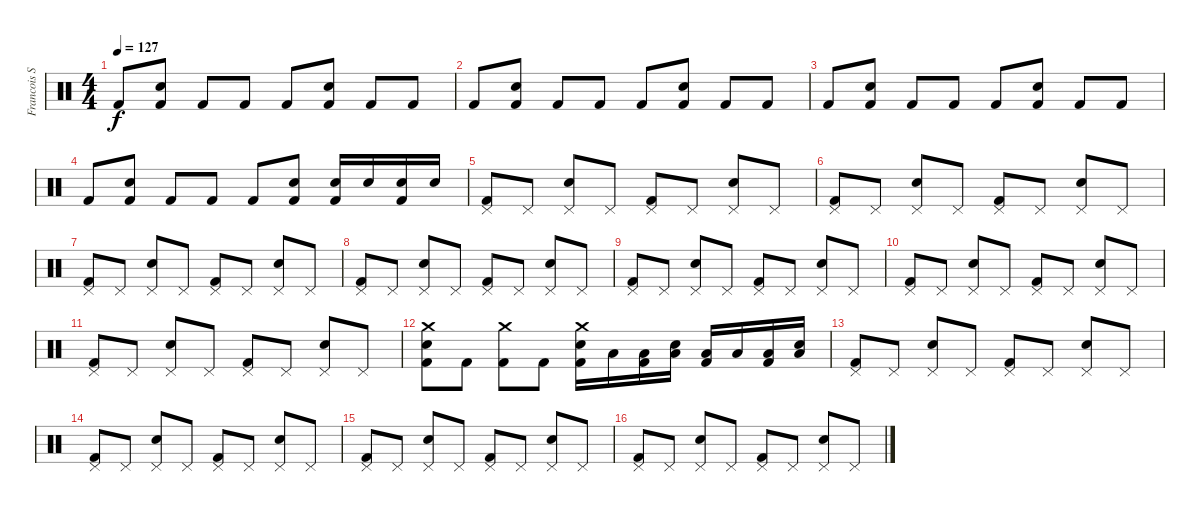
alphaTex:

\track ("Francois Soulier" "Francois S") {instrument percussion}
\staff {score}
\articulation defaults
\ts (4 4)
\tempo 127
\clef neutral
\ks c "Kick (hit) 2".8{dy f}
("Snare (hit) 2" "Kick (hit) 2").8 "Kick (hit) 2".8 "Kick (hit) 2".8 "Kick (hit) 2".8 ("Snare (hit) 2" "Kick (hit) 2").8 "Kick (hit) 2".8 "Kick (hit) 2".8 |
"Kick (hit) 2".8 ("Snare (hit) 2" "Kick (hit) 2").8 "Kick (hit) 2".8 "Kick (hit) 2".8 "Kick (hit) 2".8 ("Snare (hit) 2" "Kick (hit) 2").8 "Kick (hit) 2".8 "Kick (hit) 2".8 |
"Kick (hit) 2".8 ("Snare (hit) 2" "Kick (hit) 2").8 "Kick (hit) 2".8 "Kick (hit) 2".8 "Kick (hit) 2".8 ("Snare (hit) 2" "Kick (hit) 2").8 "Kick (hit) 2".8 "Kick (hit) 2".8 |
"Kick (hit) 2".8 ("Snare (hit) 2" "Kick (hit) 2").8 "Kick (hit) 2".8 "Kick (hit) 2".8 "Kick (hit) 2".8 ("Snare (hit) 2" "Kick (hit) 2").8 ("Snare (hit) 2" "Kick (hit) 2").16 "Snare (hit) 2".16 ("Snare (hit) 2" "Kick (hit) 2").16 "Snare (hit) 2".16 |
("Kick (hit) 2" "Pedal Hi-Hat (hit)").8 "Pedal Hi-Hat (hit)".8 ("Snare (hit) 2" "Pedal Hi-Hat (hit)").8 "Pedal Hi-Hat (hit)".8 ("Kick (hit) 2" "Pedal Hi-Hat (hit)").8 "Pedal Hi-Hat (hit)".8 ("Snare (hit) 2" "Pedal Hi-Hat (hit)").8 "Pedal Hi-Hat (hit)".8 |
("Kick (hit) 2" "Pedal Hi-Hat (hit)").8 "Pedal Hi-Hat (hit)".8 ("Snare (hit) 2" "Pedal Hi-Hat (hit)").8 "Pedal Hi-Hat (hit)".8 ("Kick (hit) 2" "Pedal Hi-Hat (hit)").8 "Pedal Hi-Hat (hit)".8 ("Snare (hit) 2" "Pedal Hi-Hat (hit)").8 "Pedal Hi-Hat (hit)".8 |
("Kick (hit) 2" "Pedal Hi-Hat (hit)").8 "Pedal Hi-Hat (hit)".8 ("Snare (hit) 2" "Pedal Hi-Hat (hit)").8 "Pedal Hi-Hat (hit)".8 ("Kick (hit) 2" "Pedal Hi-Hat (hit)").8 "Pedal Hi-Hat (hit)".8 ("Snare (hit) 2" "Pedal Hi-Hat (hit)").8 "Pedal Hi-Hat (hit)".8 |
("Kick (hit) 2" "Pedal Hi-Hat (hit)").8 "Pedal Hi-Hat (hit)".8 ("Snare (hit) 2" "Pedal Hi-Hat (hit)").8 "Pedal Hi-Hat (hit)".8 ("Kick (hit) 2" "Pedal Hi-Hat (hit)").8 "Pedal Hi-Hat (hit)".8 ("Snare (hit) 2" "Pedal Hi-Hat (hit)").8 "Pedal Hi-Hat (hit)".8 |
("Kick (hit) 2" "Pedal Hi-Hat (hit)").8 "Pedal Hi-Hat (hit)".8 ("Snare (hit) 2" "Pedal Hi-Hat (hit)").8 "Pedal Hi-Hat (hit)".8 ("Kick (hit) 2" "Pedal Hi-Hat (hit)").8 "Pedal Hi-Hat (hit)".8 ("Snare (hit) 2" "Pedal Hi-Hat (hit)").8 "Pedal Hi-Hat (hit)".8 |
("Kick (hit) 2" "Pedal Hi-Hat (hit)").8 "Pedal Hi-Hat (hit)".8 ("Snare (hit) 2" "Pedal Hi-Hat (hit)").8 "Pedal Hi-Hat (hit)".8 ("Kick (hit) 2" "Pedal Hi-Hat (hit)").8 "Pedal Hi-Hat (hit)".8 ("Snare (hit) 2" "Pedal Hi-Hat (hit)").8 "Pedal Hi-Hat (hit)".8 |
("Kick (hit) 2" "Pedal Hi-Hat (hit)").8 "Pedal Hi-Hat (hit)".8 ("Snare (hit) 2" "Pedal Hi-Hat (hit)").8 "Pedal Hi-Hat (hit)".8 ("Kick (hit) 2" "Pedal Hi-Hat (hit)").8 "Pedal Hi-Hat (hit)".8 ("Snare (hit) 2" "Pedal Hi-Hat (hit)").8 "Pedal Hi-Hat (hit)".8 |
("Snare (hit) 2" "Kick (hit) 2" "Crash medium (hit)").8 "Kick (hit) 2".8 ("Kick (hit) 2" "Crash medium (hit)").8 "Kick (hit) 2".8 ("Snare (hit) 2" "Kick (hit) 2" "Crash medium (hit)").16 "Low Floor Tom (hit)".16 ("Low Floor Tom (hit)" "Kick (hit) 2").16 ("Low Floor Tom (hit)" "Snare (hit) 2").16 ("Low Floor Tom (hit)" "Kick (hit) 2").16 "Low Floor Tom (hit)".16 ("Low Floor Tom (hit)" "Kick (hit) 2").16 ("Low Floor Tom (hit)" "Snare (hit) 2").16 |
("Kick (hit) 2" "Pedal Hi-Hat (hit)").8 "Pedal Hi-Hat (hit)".8 ("Snare (hit) 2" "Pedal Hi-Hat (hit)").8 "Pedal Hi-Hat (hit)".8 ("Kick (hit) 2" "Pedal Hi-Hat (hit)").8 "Pedal Hi-Hat (hit)".8 ("Snare (hit) 2" "Pedal Hi-Hat (hit)").8 "Pedal Hi-Hat (hit)".8 |
("Kick (hit) 2" "Pedal Hi-Hat (hit)").8 "Pedal Hi-Hat (hit)".8 ("Snare (hit) 2" "Pedal Hi-Hat (hit)").8 "Pedal Hi-Hat (hit)".8 ("Kick (hit) 2" "Pedal Hi-Hat (hit)").8 "Pedal Hi-Hat (hit)".8 ("Snare (hit) 2" "Pedal Hi-Hat (hit)").8 "Pedal Hi-Hat (hit)".8 |
("Kick (hit) 2" "Pedal Hi-Hat (hit)").8 "Pedal Hi-Hat (hit)".8 ("Snare (hit) 2" "Pedal Hi-Hat (hit)").8 "Pedal Hi-Hat (hit)".8 ("Kick (hit) 2" "Pedal Hi-Hat (hit)").8 "Pedal Hi-Hat (hit)".8 ("Snare (hit) 2" "Pedal Hi-Hat (hit)").8 "Pedal Hi-Hat (hit)".8 |
("Kick (hit) 2" "Pedal Hi-Hat (hit)").8 "Pedal Hi-Hat (hit)".8 ("Snare (hit) 2" "Pedal Hi-Hat (hit)").8 "Pedal Hi-Hat (hit)".8 ("Kick (hit) 2" "Pedal Hi-Hat (hit)").8 "Pedal Hi-Hat (hit)".8 ("Snare (hit) 2" "Pedal Hi-Hat (hit)").8 "Pedal Hi-Hat (hit)".8
